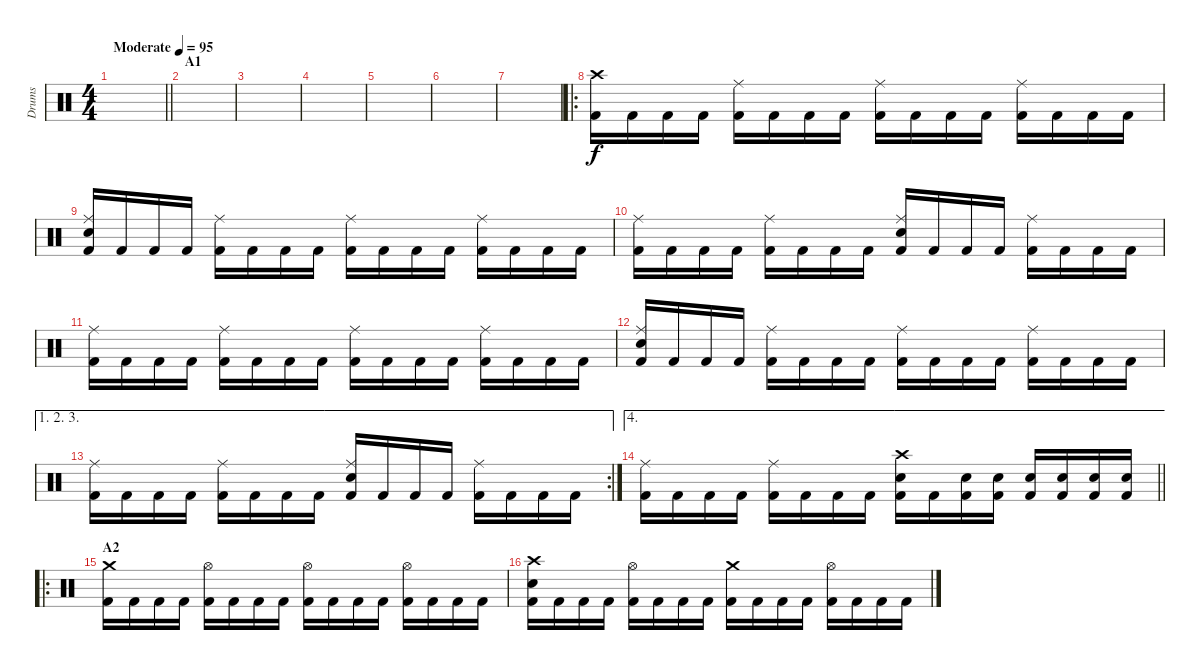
\track ("Drums" "Drums") {instrument percussion}
\staff {score}
\articulation defaults
\ts (4 4)
\tempo (95 "Moderate")
\clef neutral
\barLineRight lightlight
\ks c
|
\section ("" "A1")
|
|
|
|
|
|
\ro
("Crash high (hit)" "Kick (hit) 2").16 "Kick (hit) 2".16 "Kick (hit) 2".16 "Kick (hit) 2".16 ("Ride (middle)" "Kick (hit) 2").16 "Kick (hit) 2".16 "Kick (hit) 2".16 "Kick (hit) 2".16 ("Ride (middle)" "Kick (hit) 2").16 "Kick (hit) 2".16 "Kick (hit) 2".16 "Kick (hit) 2".16 ("Ride (middle)" "Kick (hit) 2").16 "Kick (hit) 2".16 "Kick (hit) 2".16 "Kick (hit) 2".16 |
("Ride (middle)" "Snare (hit) 2" "Kick (hit) 2").16 "Kick (hit) 2".16 "Kick (hit) 2".16 "Kick (hit) 2".16 ("Ride (middle)" "Kick (hit) 2").16 "Kick (hit) 2".16 "Kick (hit) 2".16 "Kick (hit) 2".16 ("Ride (middle)" "Kick (hit) 2").16 "Kick (hit) 2".16 "Kick (hit) 2".16 "Kick (hit) 2".16 ("Ride (middle)" "Kick (hit) 2").16 "Kick (hit) 2".16 "Kick (hit) 2".16 "Kick (hit) 2".16 |
("Ride (middle)" "Kick (hit) 2").16 "Kick (hit) 2".16 "Kick (hit) 2".16 "Kick (hit) 2".16 ("Ride (middle)" "Kick (hit) 2").16 "Kick (hit) 2".16 "Kick (hit) 2".16 "Kick (hit) 2".16 ("Ride (middle)" "Snare (hit) 2" "Kick (hit) 2").16 "Kick (hit) 2".16 "Kick (hit) 2".16 "Kick (hit) 2".16 ("Ride (middle)" "Kick (hit) 2").16 "Kick (hit) 2".16 "Kick (hit) 2".16 "Kick (hit) 2".16 |
("Ride (middle)" "Kick (hit) 2").16 "Kick (hit) 2".16 "Kick (hit) 2".16 "Kick (hit) 2".16 ("Ride (middle)" "Kick (hit) 2").16 "Kick (hit) 2".16 "Kick (hit) 2".16 "Kick (hit) 2".16 ("Ride (middle)" "Kick (hit) 2").16 "Kick (hit) 2".16 "Kick (hit) 2".16 "Kick (hit) 2".16 ("Ride (middle)" "Kick (hit) 2").16 "Kick (hit) 2".16 "Kick (hit) 2".16 "Kick (hit) 2".16 |
("Ride (middle)" "Snare (hit) 2" "Kick (hit) 2").16 "Kick (hit) 2".16 "Kick (hit) 2".16 "Kick (hit) 2".16 ("Ride (middle)" "Kick (hit) 2").16 "Kick (hit) 2".16 "Kick (hit) 2".16 "Kick (hit) 2".16 ("Ride (middle)" "Kick (hit) 2").16 "Kick (hit) 2".16 "Kick (hit) 2".16 "Kick (hit) 2".16 ("Ride (middle)" "Kick (hit) 2").16 "Kick (hit) 2".16 "Kick (hit) 2".16 "Kick (hit) 2".16 |
\ae (1 2 3)
\rc 2
("Ride (middle)" "Kick (hit) 2").16 "Kick (hit) 2".16 "Kick (hit) 2".16 "Kick (hit) 2".16 ("Ride (middle)" "Kick (hit) 2").16 "Kick (hit) 2".16 "Kick (hit) 2".16 "Kick (hit) 2".16 ("Ride (middle)" "Snare (hit) 2" "Kick (hit) 2").16 "Kick (hit) 2".16 "Kick (hit) 2".16 "Kick (hit) 2".16 ("Ride (middle)" "Kick (hit) 2").16 "Kick (hit) 2".16 "Kick (hit) 2".16 "Kick (hit) 2".16 |
\ae 4
\barLineRight lightlight
("Ride (middle)" "Kick (hit) 2").16 "Kick (hit) 2".16 "Kick (hit) 2".16 "Kick (hit) 2".16 ("Ride (middle)" "Kick (hit) 2").16 "Kick (hit) 2".16 "Kick (hit) 2".16 "Kick (hit) 2".16 ("Crash high (hit)" "Snare (hit) 2" "Kick (hit) 2").16 "Kick (hit) 2".16 ("Snare (hit) 2" "Kick (hit) 2").16 ("Snare (hit) 2" "Kick (hit) 2").16 ("Snare (hit) 2" "Kick (hit) 2").16 ("Snare (hit) 2" "Kick (hit) 2").16 ("Snare (hit) 2" "Kick (hit) 2").16 ("Snare (hit) 2" "Kick (hit) 2").16 |
\ro
\section ("" "A2")
("Crash medium (hit)" "Kick (hit) 2").16 "Kick (hit) 2".16 "Kick (hit) 2".16 "Kick (hit) 2".16 ("Hi-Hat (open)" "Kick (hit) 2").16 "Kick (hit) 2".16 "Kick (hit) 2".16 "Kick (hit) 2".16 ("Hi-Hat (open)" "Kick (hit) 2").16 "Kick (hit) 2".16 "Kick (hit) 2".16 "Kick (hit) 2".16 ("Hi-Hat (open)" "Kick (hit) 2").16 "Kick (hit) 2".16 "Kick (hit) 2".16 "Kick (hit) 2".16 |
("Crash high (hit)" "Snare (hit) 2" "Kick (hit) 2").16 "Kick (hit) 2".16 "Kick (hit) 2".16 "Kick (hit) 2".16 ("Hi-Hat (open)" "Kick (hit) 2").16 "Kick (hit) 2".16 "Kick (hit) 2".16 "Kick (hit) 2".16 ("Crash medium (hit)" "Kick (hit) 2").16 "Kick (hit) 2".16 "Kick (hit) 2".16 "Kick (hit) 2".16 ("Hi-Hat (open)" "Kick (hit) 2").16 "Kick (hit) 2".16 "Kick (hit) 2".16 "Kick (hit) 2".16
